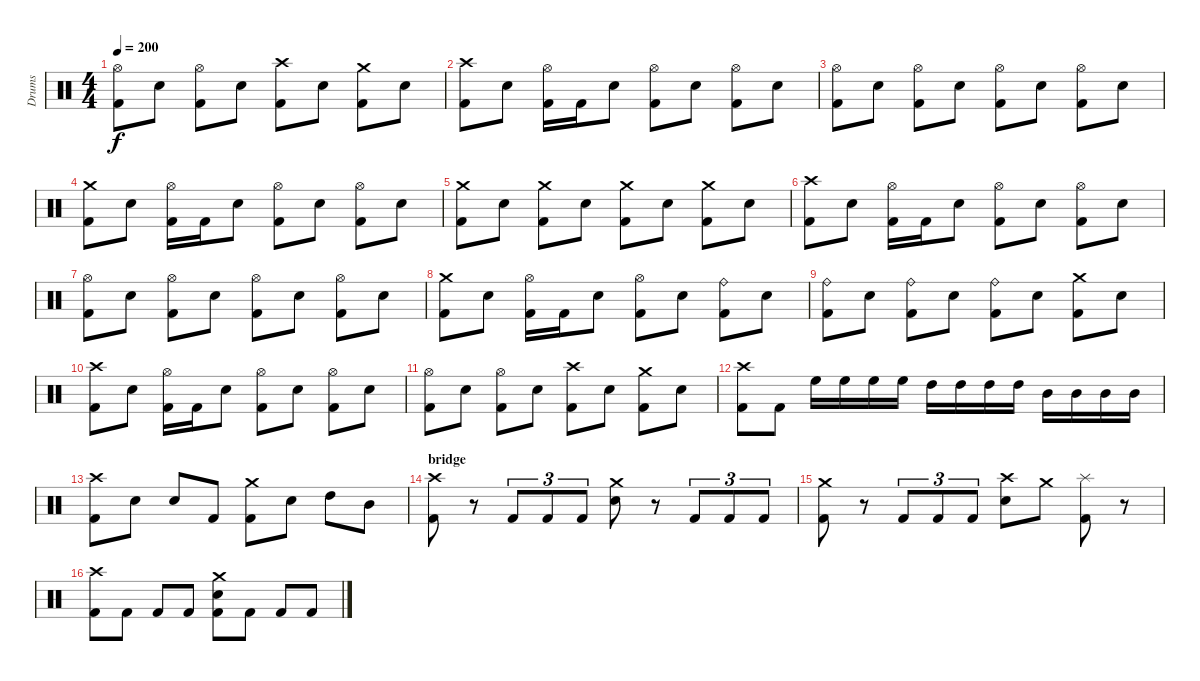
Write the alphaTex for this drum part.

\track ("Drums" "Drums") {instrument percussion}
\staff {score}
\articulation defaults
\ts (4 4)
\tempo 200
\clef neutral
\ks c
("Hi-Hat (open)" "Kick (hit) 2").8{dy f} "Electric Snare (hit)".8 ("Hi-Hat (open)" "Kick (hit) 2").8 "Electric Snare (hit)".8 ("Crash high (hit)" "Kick (hit) 2").8 "Electric Snare (hit)".8 ("Crash medium (hit)" "Kick (hit) 2").8 "Electric Snare (hit)".8 |
("Crash high (hit)" "Kick (hit) 2").8 "Electric Snare (hit)".8 ("Hi-Hat (open)" "Kick (hit) 2").16 "Kick (hit) 2".16 "Electric Snare (hit)".8 ("Hi-Hat (open)" "Kick (hit) 2").8 "Electric Snare (hit)".8 ("Hi-Hat (open)" "Kick (hit) 2").8 "Electric Snare (hit)".8 |
("Hi-Hat (open)" "Kick (hit) 2").8 "Electric Snare (hit)".8 ("Hi-Hat (open)" "Kick (hit) 2").8 "Electric Snare (hit)".8 ("Hi-Hat (open)" "Kick (hit) 2").8 "Electric Snare (hit)".8 ("Hi-Hat (open)" "Kick (hit) 2").8 "Electric Snare (hit)".8 |
("Crash medium (hit)" "Kick (hit) 2").8 "Electric Snare (hit)".8 ("Hi-Hat (open)" "Kick (hit) 2").16 "Kick (hit) 2".16 "Electric Snare (hit)".8 ("Hi-Hat (open)" "Kick (hit) 2").8 "Electric Snare (hit)".8 ("Hi-Hat (open)" "Kick (hit) 2").8 "Electric Snare (hit)".8 |
("Crash medium (hit)" "Kick (hit) 2").8 "Electric Snare (hit)".8 ("Crash medium (hit)" "Kick (hit) 2").8 "Electric Snare (hit)".8 ("Crash medium (hit)" "Kick (hit) 2").8 "Electric Snare (hit)".8 ("Crash medium (hit)" "Kick (hit) 2").8 "Electric Snare (hit)".8 |
("Crash high (hit)" "Kick (hit) 2").8 "Electric Snare (hit)".8 ("Hi-Hat (open)" "Kick (hit) 2").16 "Kick (hit) 2".16 "Electric Snare (hit)".8 ("Hi-Hat (open)" "Kick (hit) 2").8 "Electric Snare (hit)".8 ("Hi-Hat (open)" "Kick (hit) 2").8 "Electric Snare (hit)".8 |
("Hi-Hat (open)" "Kick (hit) 2").8 "Electric Snare (hit)".8 ("Hi-Hat (open)" "Kick (hit) 2").8 "Electric Snare (hit)".8 ("Hi-Hat (open)" "Kick (hit) 2").8 "Electric Snare (hit)".8 ("Hi-Hat (open)" "Kick (hit) 2").8 "Electric Snare (hit)".8 |
("Crash medium (hit)" "Kick (hit) 2").8 "Electric Snare (hit)".8 ("Hi-Hat (open)" "Kick (hit) 2").16 "Kick (hit) 2".16 "Electric Snare (hit)".8 ("Hi-Hat (open)" "Kick (hit) 2").8 "Electric Snare (hit)".8 ("Ride (bell)" "Kick (hit) 2").8 "Electric Snare (hit)".8 |
("Ride (bell)" "Kick (hit) 2").8 "Electric Snare (hit)".8 ("Ride (bell)" "Kick (hit) 2").8 "Electric Snare (hit)".8 ("Ride (bell)" "Kick (hit) 2").8 "Electric Snare (hit)".8 ("Crash medium (hit)" "Kick (hit) 2").8 "Electric Snare (hit)".8 |
("Crash high (hit)" "Kick (hit) 2").8 "Electric Snare (hit)".8 ("Hi-Hat (open)" "Kick (hit) 2").16 "Kick (hit) 2".16 "Electric Snare (hit)".8 ("Hi-Hat (open)" "Kick (hit) 2").8 "Electric Snare (hit)".8 ("Hi-Hat (open)" "Kick (hit) 2").8 "Electric Snare (hit)".8 |
("Hi-Hat (open)" "Kick (hit) 2").8 "Electric Snare (hit)".8 ("Hi-Hat (open)" "Kick (hit) 2").8 "Electric Snare (hit)".8 ("Crash high (hit)" "Kick (hit) 2").8 "Electric Snare (hit)".8 ("Crash medium (hit)" "Kick (hit) 2").8 "Electric Snare (hit)".8 |
("Crash high (hit)" "Kick (hit) 2").8 "Kick (hit) 2".8 "High Floor Tom (hit)".16 "High Floor Tom (hit)".16 "High Floor Tom (hit)".16 "High Floor Tom (hit)".16 "High Tom (hit)".16 "High Tom (hit)".16 "High Tom (hit)".16 "High Tom (hit)".16 "Mid Tom (hit)".16 "Mid Tom (hit)".16 "Mid Tom (hit)".16 "Mid Tom (hit)".16 |
("Crash high (hit)" "Kick (hit) 2").8 "Electric Snare (hit)".8 "Electric Snare (hit)".8 "Kick (hit) 2".8 ("Crash medium (hit)" "Kick (hit) 2").8 "Electric Snare (hit)".8 "High Tom (hit)".8 "Mid Tom (hit)".8 |
\section ("" "bridge")
("Crash high (hit)" "Kick (hit) 2").8 r.8 "Kick (hit) 2".8{tu (3 2)} "Kick (hit) 2".8{tu (3 2)} "Kick (hit) 2".8{tu (3 2)} ("Crash medium (hit)" "Electric Snare (hit)").8 r.8 "Kick (hit) 2".8{tu (3 2)} "Kick (hit) 2".8{tu (3 2)} "Kick (hit) 2".8{tu (3 2)} |
("Crash medium (hit)" "Kick (hit) 2").8 r.8 "Kick (hit) 2".8{tu (3 2)} "Kick (hit) 2".8{tu (3 2)} "Kick (hit) 2".8{tu (3 2)} ("Crash high (hit)" "Electric Snare (hit)").8 "Crash medium (hit)".8 ("Splash (hit)" "Kick (hit) 2").8 r.8 |
("Crash high (hit)" "Kick (hit) 2").8 "Kick (hit) 2".8 "Kick (hit) 2".8 "Kick (hit) 2".8 ("Crash medium (hit)" "Electric Snare (hit)" "Kick (hit) 2").8 "Kick (hit) 2".8 "Kick (hit) 2".8 "Kick (hit) 2".8
